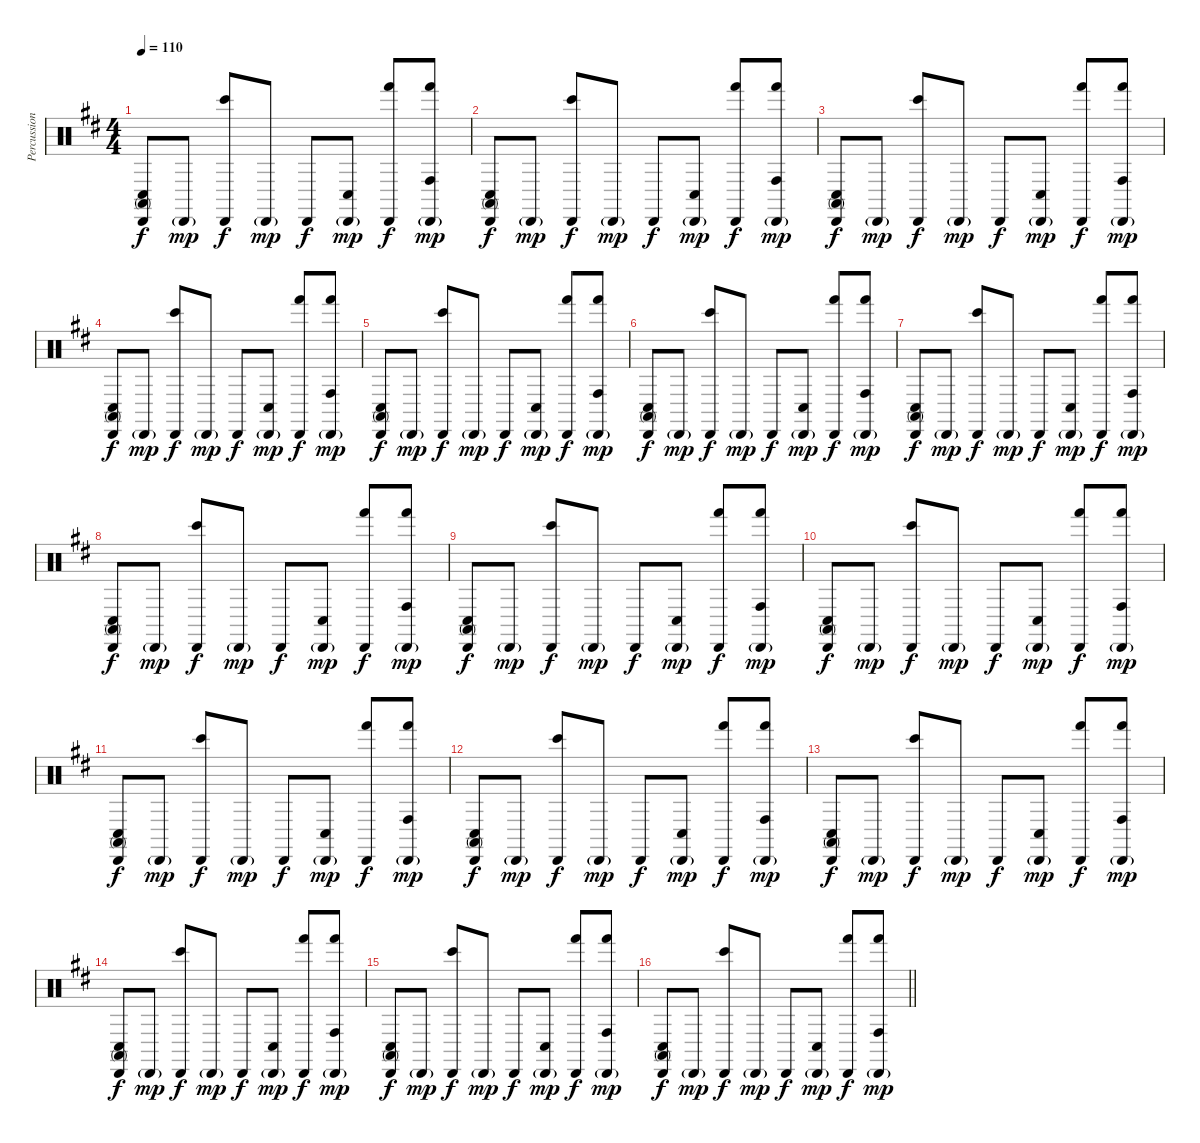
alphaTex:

\track ("Percussions" "Percussion") {instrument percussion}
\staff {score}
\articulation defaults
\ts (4 4)
\tempo 110
\clef neutral
\ks d
("Cabasa (hit)" "Conga high (mute)" "Conga low (hit)").8{dy f} "Cabasa (hit)"{g}.8{dy mp} ("Cabasa (hit)" "Bongo High (hit)").8{dy f} "Cabasa (hit)"{g}.8{dy mp} "Cabasa (hit)".8{dy f} ("Cabasa (hit)"{g} "Conga low (hit)").8{dy mp} ("Cabasa (hit)" "Hand (hit)").8{dy f} ("Cabasa (hit)"{g} "Hand (hit)" "Conga high (hit)").8{dy mp} |
("Cabasa (hit)" "Conga high (mute)" "Conga low (hit)").8{dy f} "Cabasa (hit)"{g}.8{dy mp} ("Cabasa (hit)" "Bongo High (hit)").8{dy f} "Cabasa (hit)"{g}.8{dy mp} "Cabasa (hit)".8{dy f} ("Cabasa (hit)"{g} "Conga low (hit)").8{dy mp} ("Cabasa (hit)" "Hand (hit)").8{dy f} ("Cabasa (hit)"{g} "Hand (hit)" "Conga high (hit)").8{dy mp} |
("Cabasa (hit)" "Conga high (mute)" "Conga low (hit)").8{dy f} "Cabasa (hit)"{g}.8{dy mp} ("Cabasa (hit)" "Bongo High (hit)").8{dy f} "Cabasa (hit)"{g}.8{dy mp} "Cabasa (hit)".8{dy f} ("Cabasa (hit)"{g} "Conga low (hit)").8{dy mp} ("Cabasa (hit)" "Hand (hit)").8{dy f} ("Cabasa (hit)"{g} "Hand (hit)" "Conga high (hit)").8{dy mp} |
("Cabasa (hit)" "Conga high (mute)" "Conga low (hit)").8{dy f} "Cabasa (hit)"{g}.8{dy mp} ("Cabasa (hit)" "Bongo High (hit)").8{dy f} "Cabasa (hit)"{g}.8{dy mp} "Cabasa (hit)".8{dy f} ("Cabasa (hit)"{g} "Conga low (hit)").8{dy mp} ("Cabasa (hit)" "Hand (hit)").8{dy f} ("Cabasa (hit)"{g} "Hand (hit)" "Conga high (hit)").8{dy mp} |
("Cabasa (hit)" "Conga high (mute)" "Conga low (hit)").8{dy f} "Cabasa (hit)"{g}.8{dy mp} ("Cabasa (hit)" "Bongo High (hit)").8{dy f} "Cabasa (hit)"{g}.8{dy mp} "Cabasa (hit)".8{dy f} ("Cabasa (hit)"{g} "Conga low (hit)").8{dy mp} ("Cabasa (hit)" "Hand (hit)").8{dy f} ("Cabasa (hit)"{g} "Hand (hit)" "Conga high (hit)").8{dy mp} |
("Cabasa (hit)" "Conga high (mute)" "Conga low (hit)").8{dy f} "Cabasa (hit)"{g}.8{dy mp} ("Cabasa (hit)" "Bongo High (hit)").8{dy f} "Cabasa (hit)"{g}.8{dy mp} "Cabasa (hit)".8{dy f} ("Cabasa (hit)"{g} "Conga low (hit)").8{dy mp} ("Cabasa (hit)" "Hand (hit)").8{dy f} ("Cabasa (hit)"{g} "Hand (hit)" "Conga high (hit)").8{dy mp} |
("Cabasa (hit)" "Conga high (mute)" "Conga low (hit)").8{dy f} "Cabasa (hit)"{g}.8{dy mp} ("Cabasa (hit)" "Bongo High (hit)").8{dy f} "Cabasa (hit)"{g}.8{dy mp} "Cabasa (hit)".8{dy f} ("Cabasa (hit)"{g} "Conga low (hit)").8{dy mp} ("Cabasa (hit)" "Hand (hit)").8{dy f} ("Cabasa (hit)"{g} "Hand (hit)" "Conga high (hit)").8{dy mp} |
("Cabasa (hit)" "Conga high (mute)" "Conga low (hit)").8{dy f} "Cabasa (hit)"{g}.8{dy mp} ("Cabasa (hit)" "Bongo High (hit)").8{dy f} "Cabasa (hit)"{g}.8{dy mp} "Cabasa (hit)".8{dy f} ("Cabasa (hit)"{g} "Conga low (hit)").8{dy mp} ("Cabasa (hit)" "Hand (hit)").8{dy f} ("Cabasa (hit)"{g} "Hand (hit)" "Conga high (hit)").8{dy mp} |
("Cabasa (hit)" "Conga high (mute)" "Conga low (hit)").8{dy f} "Cabasa (hit)"{g}.8{dy mp} ("Cabasa (hit)" "Bongo High (hit)").8{dy f} "Cabasa (hit)"{g}.8{dy mp} "Cabasa (hit)".8{dy f} ("Cabasa (hit)"{g} "Conga low (hit)").8{dy mp} ("Cabasa (hit)" "Hand (hit)").8{dy f} ("Cabasa (hit)"{g} "Hand (hit)" "Conga high (hit)").8{dy mp} |
("Cabasa (hit)" "Conga high (mute)" "Conga low (hit)").8{dy f} "Cabasa (hit)"{g}.8{dy mp} ("Cabasa (hit)" "Bongo High (hit)").8{dy f} "Cabasa (hit)"{g}.8{dy mp} "Cabasa (hit)".8{dy f} ("Cabasa (hit)"{g} "Conga low (hit)").8{dy mp} ("Cabasa (hit)" "Hand (hit)").8{dy f} ("Cabasa (hit)"{g} "Hand (hit)" "Conga high (hit)").8{dy mp} |
("Cabasa (hit)" "Conga high (mute)" "Conga low (hit)").8{dy f} "Cabasa (hit)"{g}.8{dy mp} ("Cabasa (hit)" "Bongo High (hit)").8{dy f} "Cabasa (hit)"{g}.8{dy mp} "Cabasa (hit)".8{dy f} ("Cabasa (hit)"{g} "Conga low (hit)").8{dy mp} ("Cabasa (hit)" "Hand (hit)").8{dy f} ("Cabasa (hit)"{g} "Hand (hit)" "Conga high (hit)").8{dy mp} |
("Cabasa (hit)" "Conga high (mute)" "Conga low (hit)").8{dy f} "Cabasa (hit)"{g}.8{dy mp} ("Cabasa (hit)" "Bongo High (hit)").8{dy f} "Cabasa (hit)"{g}.8{dy mp} "Cabasa (hit)".8{dy f} ("Cabasa (hit)"{g} "Conga low (hit)").8{dy mp} ("Cabasa (hit)" "Hand (hit)").8{dy f} ("Cabasa (hit)"{g} "Hand (hit)" "Conga high (hit)").8{dy mp} |
("Cabasa (hit)" "Conga high (mute)" "Conga low (hit)").8{dy f} "Cabasa (hit)"{g}.8{dy mp} ("Cabasa (hit)" "Bongo High (hit)").8{dy f} "Cabasa (hit)"{g}.8{dy mp} "Cabasa (hit)".8{dy f} ("Cabasa (hit)"{g} "Conga low (hit)").8{dy mp} ("Cabasa (hit)" "Hand (hit)").8{dy f} ("Cabasa (hit)"{g} "Hand (hit)" "Conga high (hit)").8{dy mp} |
("Cabasa (hit)" "Conga high (mute)" "Conga low (hit)").8{dy f} "Cabasa (hit)"{g}.8{dy mp} ("Cabasa (hit)" "Bongo High (hit)").8{dy f} "Cabasa (hit)"{g}.8{dy mp} "Cabasa (hit)".8{dy f} ("Cabasa (hit)"{g} "Conga low (hit)").8{dy mp} ("Cabasa (hit)" "Hand (hit)").8{dy f} ("Cabasa (hit)"{g} "Hand (hit)" "Conga high (hit)").8{dy mp} |
("Cabasa (hit)" "Conga high (mute)" "Conga low (hit)").8{dy f} "Cabasa (hit)"{g}.8{dy mp} ("Cabasa (hit)" "Bongo High (hit)").8{dy f} "Cabasa (hit)"{g}.8{dy mp} "Cabasa (hit)".8{dy f} ("Cabasa (hit)"{g} "Conga low (hit)").8{dy mp} ("Cabasa (hit)" "Hand (hit)").8{dy f} ("Cabasa (hit)"{g} "Hand (hit)" "Conga high (hit)").8{dy mp} |
\barLineRight lightlight
("Cabasa (hit)" "Conga high (mute)" "Conga low (hit)").8{dy f} "Cabasa (hit)"{g}.8{dy mp} ("Cabasa (hit)" "Bongo High (hit)").8{dy f} "Cabasa (hit)"{g}.8{dy mp} "Cabasa (hit)".8{dy f} ("Cabasa (hit)"{g} "Conga low (hit)").8{dy mp} ("Cabasa (hit)" "Hand (hit)").8{dy f} ("Cabasa (hit)"{g} "Hand (hit)" "Conga high (hit)").8{dy mp}
